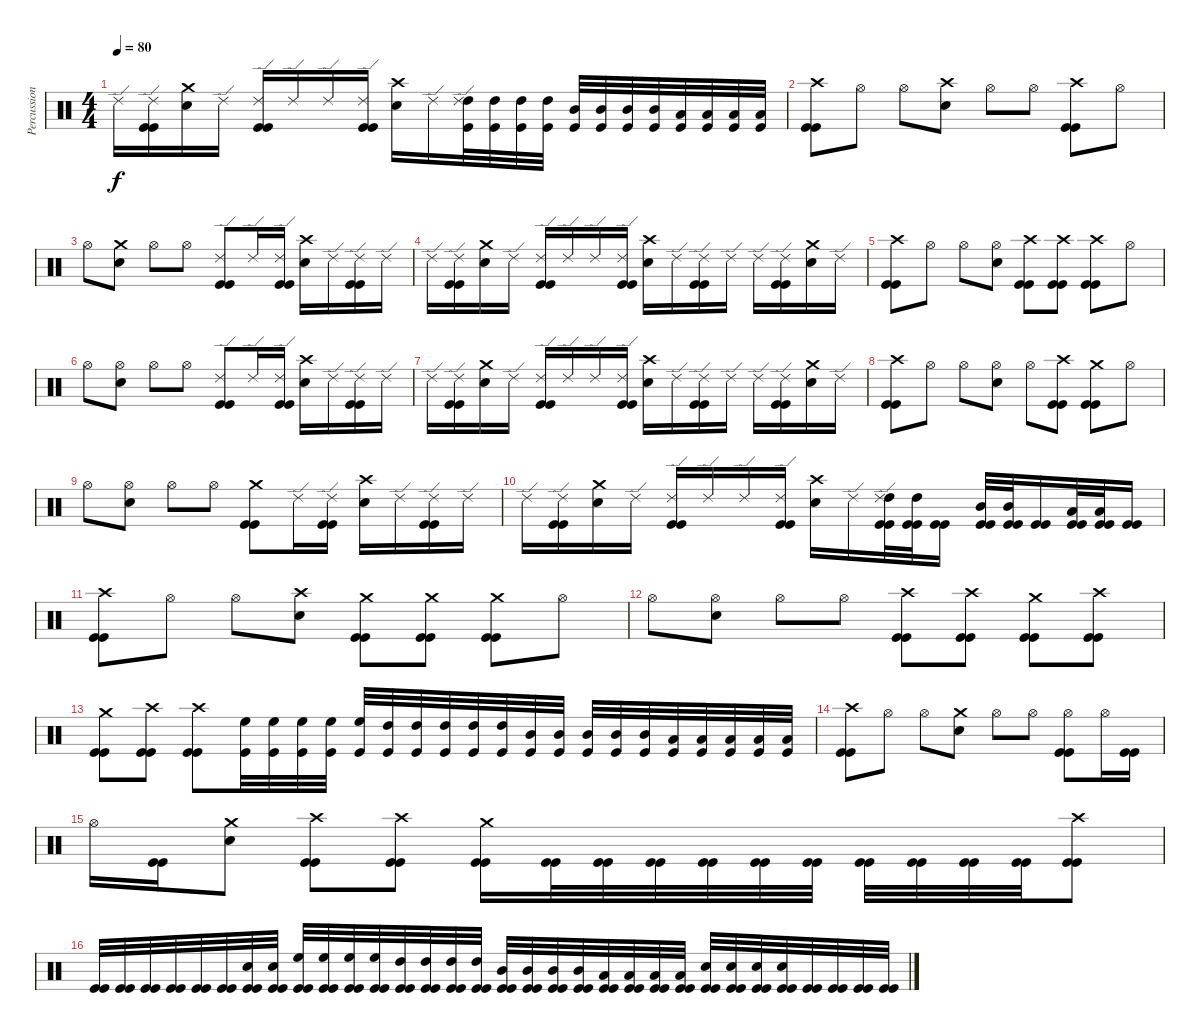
\track ("Percussions" "Percussion") {instrument percussion}
\staff {score}
\articulation defaults
\ts (4 4)
\tempo 80
\clef neutral
\ks c "Ride (edge) 2".16{dy f}
("Kick (hit)" "Kick (hit)" "Ride (edge) 2").16 ("Electric Snare (hit)" "Crash medium (hit)").16 "Ride (edge) 2".16 ("Kick (hit)" "Kick (hit)" "Ride (edge) 2").16 "Ride (edge) 2".16 "Ride (edge) 2".16 ("Kick (hit)" "Kick (hit)" "Ride (edge) 2").16 ("Electric Snare (hit)" "Crash high (hit)").16 "Ride (edge) 2".16 ("Kick (hit)" "High Tom (hit)" "Ride (edge) 2").32 ("Kick (hit)" "High Tom (hit)").32 ("Kick (hit)" "High Tom (hit)").32 ("Kick (hit)" "High Tom (hit)").32 ("Kick (hit)" "Mid Tom (hit)").32 ("Kick (hit)" "Mid Tom (hit)").32 ("Kick (hit)" "Mid Tom (hit)").32 ("Kick (hit)" "Mid Tom (hit)").32 ("Kick (hit)" "Low Tom (hit)").32 ("Kick (hit)" "Low Tom (hit)").32 ("Kick (hit)" "Low Tom (hit)").32 ("Kick (hit)" "Low Tom (hit)").32 |
("Kick (hit)" "Kick (hit)" "Crash high (hit)").8 "Hi-Hat (open)".8 "Hi-Hat (open)".8 ("Electric Snare (hit)" "Crash high (hit)").8 "Hi-Hat (open)".8 "Hi-Hat (open)".8 ("Kick (hit)" "Kick (hit)" "Crash high (hit)").8 "Hi-Hat (open)".8 |
"Hi-Hat (open)".8 ("Electric Snare (hit)" "Crash medium (hit)").8 "Hi-Hat (open)".8 "Hi-Hat (open)".8 ("Kick (hit)" "Kick (hit)" "Ride (edge) 2").8 "Ride (edge) 2".16 ("Kick (hit)" "Kick (hit)" "Ride (edge) 2").16 ("Electric Snare (hit)" "Crash high (hit)").16 "Ride (edge) 2".16 ("Kick (hit)" "Kick (hit)" "Ride (edge) 2").16 "Ride (edge) 2".16 |
"Ride (edge) 2".16 ("Kick (hit)" "Kick (hit)" "Ride (edge) 2").16 ("Electric Snare (hit)" "Crash medium (hit)").16 "Ride (edge) 2".16 ("Kick (hit)" "Kick (hit)" "Ride (edge) 2").16 "Ride (edge) 2".16 "Ride (edge) 2".16 ("Kick (hit)" "Kick (hit)" "Ride (edge) 2").16 ("Electric Snare (hit)" "Crash high (hit)").16 "Ride (edge) 2".16 ("Kick (hit)" "Kick (hit)" "Ride (edge) 2").16 "Ride (edge) 2".16 "Ride (edge) 2".16 ("Kick (hit)" "Kick (hit)" "Ride (edge) 2").16 ("Electric Snare (hit)" "Crash medium (hit)").16 "Ride (edge) 2".16 |
("Kick (hit)" "Kick (hit)" "Crash high (hit)").8 "Hi-Hat (open)".8 "Hi-Hat (open)".8 ("Electric Snare (hit)" "Hi-Hat (open)").8 ("Kick (hit)" "Kick (hit)" "Crash high (hit)").8 ("Kick (hit)" "Kick (hit)" "Crash high (hit)").8 ("Kick (hit)" "Kick (hit)" "Crash high (hit)").8 "Hi-Hat (open)".8 |
"Hi-Hat (open)".8 ("Electric Snare (hit)" "Hi-Hat (open)").8 "Hi-Hat (open)".8 "Hi-Hat (open)".8 ("Kick (hit)" "Kick (hit)" "Ride (edge) 2").8 "Ride (edge) 2".16 ("Kick (hit)" "Kick (hit)" "Ride (edge) 2").16 ("Electric Snare (hit)" "Crash high (hit)").16 "Ride (edge) 2".16 ("Kick (hit)" "Kick (hit)" "Ride (edge) 2").16 "Ride (edge) 2".16 |
"Ride (edge) 2".16 ("Kick (hit)" "Kick (hit)" "Ride (edge) 2").16 ("Electric Snare (hit)" "Crash medium (hit)").16 "Ride (edge) 2".16 ("Kick (hit)" "Kick (hit)" "Ride (edge) 2").16 "Ride (edge) 2".16 "Ride (edge) 2".16 ("Kick (hit)" "Kick (hit)" "Ride (edge) 2").16 ("Electric Snare (hit)" "Crash high (hit)").16 "Ride (edge) 2".16 ("Kick (hit)" "Kick (hit)" "Ride (edge) 2").16 "Ride (edge) 2".16 "Ride (edge) 2".16 ("Kick (hit)" "Kick (hit)" "Ride (edge) 2").16 ("Electric Snare (hit)" "Crash medium (hit)").16 "Ride (edge) 2".16 |
("Kick (hit)" "Kick (hit)" "Crash high (hit)").8 "Hi-Hat (open)".8 "Hi-Hat (open)".8 ("Electric Snare (hit)" "Hi-Hat (open)").8 "Hi-Hat (open)".8 ("Kick (hit)" "Kick (hit)" "Crash high (hit)").8 ("Kick (hit)" "Kick (hit)" "Crash medium (hit)").8 "Hi-Hat (open)".8 |
"Hi-Hat (open)".8 ("Electric Snare (hit)" "Hi-Hat (open)").8 "Hi-Hat (open)".8 "Hi-Hat (open)".8 ("Kick (hit)" "Kick (hit)" "Crash medium (hit)").8 "Ride (edge) 2".16 ("Kick (hit)" "Kick (hit)" "Ride (edge) 2").16 ("Electric Snare (hit)" "Crash high (hit)").16 "Ride (edge) 2".16 ("Kick (hit)" "Kick (hit)" "Ride (edge) 2").16 "Ride (edge) 2".16 |
"Ride (edge) 2".16 ("Kick (hit)" "Kick (hit)" "Ride (edge) 2").16 ("Electric Snare (hit)" "Crash medium (hit)").16 "Ride (edge) 2".16 ("Kick (hit)" "Kick (hit)" "Ride (edge) 2").16 "Ride (edge) 2".16 "Ride (edge) 2".16 ("Kick (hit)" "Kick (hit)" "Ride (edge) 2").16 ("Electric Snare (hit)" "Crash high (hit)").16 "Ride (edge) 2".16 ("Kick (hit)" "Kick (hit)" "High Tom (hit)" "Ride (edge) 2").32 ("Kick (hit)" "Kick (hit)" "High Tom (hit)").32 ("Kick (hit)" "Kick (hit)").16 ("Kick (hit)" "Kick (hit)" "Mid Tom (hit)").32 ("Kick (hit)" "Kick (hit)" "Mid Tom (hit)").32 ("Kick (hit)" "Kick (hit)").16 ("Kick (hit)" "Kick (hit)" "Low Tom (hit)").32 ("Kick (hit)" "Kick (hit)" "Low Tom (hit)").32 ("Kick (hit)" "Kick (hit)").16 |
("Kick (hit)" "Kick (hit)" "Crash high (hit)").8 "Hi-Hat (open)".8 "Hi-Hat (open)".8 ("Electric Snare (hit)" "Crash high (hit)").8 ("Kick (hit)" "Kick (hit)" "Crash medium (hit)").8 ("Kick (hit)" "Kick (hit)" "Crash medium (hit)").8 ("Kick (hit)" "Kick (hit)" "Crash medium (hit)").8 "Hi-Hat (open)".8 |
"Hi-Hat (open)".8 ("Electric Snare (hit)" "Hi-Hat (open)").8 "Hi-Hat (open)".8 "Hi-Hat (open)".8 ("Kick (hit)" "Kick (hit)" "Crash high (hit)").8 ("Kick (hit)" "Kick (hit)" "Crash high (hit)").8 ("Kick (hit)" "Kick (hit)" "Crash medium (hit)").8 ("Kick (hit)" "Kick (hit)" "Crash high (hit)").8 |
("Kick (hit)" "Kick (hit)" "Crash medium (hit)").8 ("Kick (hit)" "Kick (hit)" "Crash high (hit)").8 ("Kick (hit)" "Kick (hit)" "Crash high (hit)").8 ("Kick (hit)" "High Floor Tom (hit)").32 ("Kick (hit)" "High Floor Tom (hit)").32 ("Kick (hit)" "High Floor Tom (hit)").32 ("Kick (hit)" "High Floor Tom (hit)").32 ("Kick (hit)" "High Floor Tom (hit)").32 ("Kick (hit)" "High Tom (hit)").32 ("Kick (hit)" "High Tom (hit)").32 ("Kick (hit)" "High Tom (hit)").32 ("Kick (hit)" "High Tom (hit)").32 ("Kick (hit)" "High Tom (hit)").32 ("Kick (hit)" "Mid Tom (hit)").32 ("Kick (hit)" "Mid Tom (hit)").32 ("Kick (hit)" "Mid Tom (hit)").32 ("Kick (hit)" "Mid Tom (hit)").32 ("Kick (hit)" "Mid Tom (hit)").32 ("Kick (hit)" "Low Tom (hit)").32 ("Kick (hit)" "Low Tom (hit)").32 ("Kick (hit)" "Low Tom (hit)").32 ("Kick (hit)" "Low Tom (hit)").32 ("Kick (hit)" "Low Tom (hit)").32 |
("Kick (hit)" "Kick (hit)" "Crash high (hit)").8 "Hi-Hat (open)".8 "Hi-Hat (open)".8 ("Electric Snare (hit)" "Crash medium (hit)").8 "Hi-Hat (open)".8 "Hi-Hat (open)".8 ("Kick (hit)" "Kick (hit)" "Hi-Hat (open)").8 "Hi-Hat (open)".16 ("Kick (hit)" "Kick (hit)").16 |
"Hi-Hat (open)".16 ("Kick (hit)" "Kick (hit)").16 ("Electric Snare (hit)" "Crash medium (hit)").8 ("Kick (hit)" "Kick (hit)" "Crash high (hit)").8 ("Kick (hit)" "Kick (hit)" "Crash high (hit)").8 ("Kick (hit)" "Kick (hit)" "Crash medium (hit)").16 ("Kick (hit)" "Kick (hit)").32 ("Kick (hit)" "Kick (hit)").32 ("Kick (hit)" "Kick (hit)").32 ("Kick (hit)" "Kick (hit)").32 ("Kick (hit)" "Kick (hit)").32 ("Kick (hit)" "Kick (hit)").32 ("Kick (hit)" "Kick (hit)").32 ("Kick (hit)" "Kick (hit)").32 ("Kick (hit)" "Kick (hit)").32 ("Kick (hit)" "Kick (hit)").32 ("Kick (hit)" "Kick (hit)" "Crash high (hit)").8 |
("Kick (hit)" "Kick (hit)").32 ("Kick (hit)" "Kick (hit)").32 ("Kick (hit)" "Kick (hit)").32 ("Kick (hit)" "Kick (hit)").32 ("Kick (hit)" "Kick (hit)").32 ("Kick (hit)" "Kick (hit)").32 ("Kick (hit)" "Kick (hit)" "Electric Snare (hit)").32 ("Kick (hit)" "Kick (hit)" "Electric Snare (hit)").32 ("Kick (hit)" "Kick (hit)" "High Floor Tom (hit)").32 ("Kick (hit)" "Kick (hit)" "High Floor Tom (hit)").32 ("Kick (hit)" "Kick (hit)" "High Floor Tom (hit)").32 ("Kick (hit)" "Kick (hit)" "High Floor Tom (hit)").32 ("Kick (hit)" "Kick (hit)" "High Tom (hit)").32 ("Kick (hit)" "Kick (hit)" "High Tom (hit)").32 ("Kick (hit)" "Kick (hit)" "High Tom (hit)").32 ("Kick (hit)" "Kick (hit)" "High Tom (hit)").32 ("Kick (hit)" "Kick (hit)" "Mid Tom (hit)").32 ("Kick (hit)" "Kick (hit)" "Mid Tom (hit)").32 ("Kick (hit)" "Kick (hit)" "Mid Tom (hit)").32 ("Kick (hit)" "Kick (hit)" "Mid Tom (hit)").32 ("Kick (hit)" "Kick (hit)" "Low Tom (hit)").32 ("Kick (hit)" "Kick (hit)" "Low Tom (hit)").32 ("Kick (hit)" "Kick (hit)" "Low Tom (hit)").32 ("Kick (hit)" "Kick (hit)" "Low Tom (hit)").32 ("Kick (hit)" "Kick (hit)" "Electric Snare (hit)").32 ("Kick (hit)" "Kick (hit)" "Electric Snare (hit)").32 ("Kick (hit)" "Kick (hit)" "Electric Snare (hit)").32 ("Kick (hit)" "Kick (hit)" "Electric Snare (hit)").32 ("Kick (hit)" "Kick (hit)").32 ("Kick (hit)" "Kick (hit)").32 ("Kick (hit)" "Kick (hit)").32 ("Kick (hit)" "Kick (hit)").32
